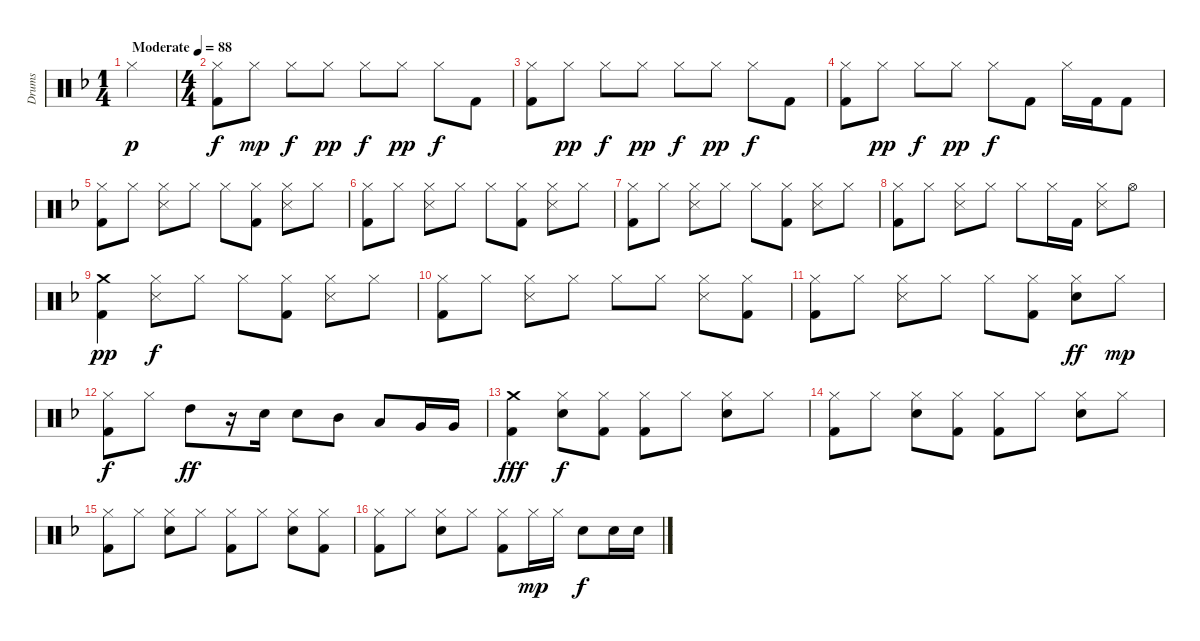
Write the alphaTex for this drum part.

\track ("Drums" "Drums") {instrument percussion}
\staff {score}
\articulation defaults
\ts (1 4)
\tempo (88 "Moderate")
\clef neutral
\ks dminor "Hi-Hat (closed)".4{dy p}
|
\ts (4 4)
("Hi-Hat (closed)" "Kick (hit) 2").8{dy f} "Hi-Hat (closed)".8{dy mp} "Hi-Hat (closed)".8{dy f} "Hi-Hat (closed)".8{dy pp} "Hi-Hat (closed)".8{dy f} "Hi-Hat (closed)".8{dy pp} "Hi-Hat (closed)".8{dy f} "Kick (hit) 2".8 |
("Hi-Hat (closed)" "Kick (hit) 2").8 "Hi-Hat (closed)".8{dy pp} "Hi-Hat (closed)".8{dy f} "Hi-Hat (closed)".8{dy pp} "Hi-Hat (closed)".8{dy f} "Hi-Hat (closed)".8{dy pp} "Hi-Hat (closed)".8{dy f} "Kick (hit) 2".8 |
("Hi-Hat (closed)" "Kick (hit) 2").8 "Hi-Hat (closed)".8{dy pp} "Hi-Hat (closed)".8{dy f} "Hi-Hat (closed)".8{dy pp} "Hi-Hat (closed)".8{dy f} "Kick (hit) 2".8 "Hi-Hat (closed)".16 "Kick (hit) 2".16 "Kick (hit) 2".8 |
("Hi-Hat (closed)" "Kick (hit) 2").8 "Hi-Hat (closed)".8 ("Hi-Hat (closed)" "Snare (side stick) 3").8 "Hi-Hat (closed)".8 "Hi-Hat (closed)".8 ("Hi-Hat (closed)" "Kick (hit) 2").8 ("Hi-Hat (closed)" "Snare (side stick) 3").8 "Hi-Hat (closed)".8 |
("Hi-Hat (closed)" "Kick (hit) 2").8 "Hi-Hat (closed)".8 ("Hi-Hat (closed)" "Snare (side stick) 3").8 "Hi-Hat (closed)".8 "Hi-Hat (closed)".8 ("Hi-Hat (closed)" "Kick (hit) 2").8 ("Hi-Hat (closed)" "Snare (side stick) 3").8 "Hi-Hat (closed)".8 |
("Hi-Hat (closed)" "Kick (hit) 2").8 "Hi-Hat (closed)".8 ("Hi-Hat (closed)" "Snare (side stick) 3").8 "Hi-Hat (closed)".8 "Hi-Hat (closed)".8 ("Hi-Hat (closed)" "Kick (hit) 2").8 ("Hi-Hat (closed)" "Snare (side stick) 3").8 "Hi-Hat (closed)".8 |
("Hi-Hat (closed)" "Kick (hit) 2").8 "Hi-Hat (closed)".8 ("Hi-Hat (closed)" "Snare (side stick) 3").8 "Hi-Hat (closed)".8 "Hi-Hat (closed)".8 "Hi-Hat (closed)".16 "Kick (hit) 2".16 ("Hi-Hat (closed)" "Snare (side stick) 3").8 "Hi-Hat (open)".8 |
("Crash medium (hit)" "Kick (hit) 2").4{dy pp} ("Hi-Hat (closed)" "Snare (side stick) 3").8{dy f} "Hi-Hat (closed)".8 "Hi-Hat (closed)".8 ("Hi-Hat (closed)" "Kick (hit) 2").8 ("Hi-Hat (closed)" "Snare (side stick) 3").8 "Hi-Hat (closed)".8 |
("Hi-Hat (closed)" "Kick (hit) 2").8 "Hi-Hat (closed)".8 ("Hi-Hat (closed)" "Snare (side stick) 3").8 "Hi-Hat (closed)".8 "Hi-Hat (closed)".8 "Hi-Hat (closed)".8 ("Hi-Hat (closed)" "Snare (side stick) 3").8 ("Hi-Hat (closed)" "Kick (hit) 2").8 |
("Hi-Hat (closed)" "Kick (hit) 2").8 "Hi-Hat (closed)".8 ("Hi-Hat (closed)" "Snare (side stick) 3").8 "Hi-Hat (closed)".8 "Hi-Hat (closed)".8 ("Hi-Hat (closed)" "Kick (hit) 2").8 ("Hi-Hat (closed)" "Snare (hit) 2").8{dy ff} "Hi-Hat (closed)".8{dy mp} |
("Hi-Hat (closed)" "Kick (hit) 2").8{dy f} "Hi-Hat (closed)".8 "High Tom (hit)".8{dy ff} r.16 "Snare (hit) 2".16 "Snare (hit) 2".8 "Mid Tom (hit)".8 "Low Tom (hit)".8 "Very Low Tom (hit)".16 "Very Low Tom (hit)".16 |
("Crash medium (hit)" "Kick (hit) 2").4{dy fff} ("Hi-Hat (closed)" "Snare (hit) 2").8{dy f} ("Hi-Hat (closed)" "Kick (hit) 2").8 ("Hi-Hat (closed)" "Kick (hit) 2").8 "Hi-Hat (closed)".8 ("Hi-Hat (closed)" "Snare (hit) 2").8 "Hi-Hat (closed)".8 |
("Hi-Hat (closed)" "Kick (hit) 2").8 "Hi-Hat (closed)".8 ("Hi-Hat (closed)" "Snare (hit) 2").8 ("Hi-Hat (closed)" "Kick (hit) 2").8 ("Hi-Hat (closed)" "Kick (hit) 2").8 "Hi-Hat (closed)".8 ("Hi-Hat (closed)" "Snare (hit) 2").8 "Hi-Hat (closed)".8 |
("Hi-Hat (closed)" "Kick (hit) 2").8 "Hi-Hat (closed)".8 ("Hi-Hat (closed)" "Snare (hit) 2").8 "Hi-Hat (closed)".8 ("Hi-Hat (closed)" "Kick (hit) 2").8 "Hi-Hat (closed)".8 ("Hi-Hat (closed)" "Snare (hit) 2").8 ("Hi-Hat (closed)" "Kick (hit) 2").8 |
("Hi-Hat (closed)" "Kick (hit) 2").8 "Hi-Hat (closed)".8 ("Hi-Hat (closed)" "Snare (hit) 2").8 "Hi-Hat (closed)".8 ("Hi-Hat (closed)" "Kick (hit) 2").8 "Hi-Hat (closed)".16{dy mp} "Hi-Hat (closed)".16 "Snare (hit) 2".8{dy f} "Snare (hit) 2".16 "Snare (hit) 2".16
